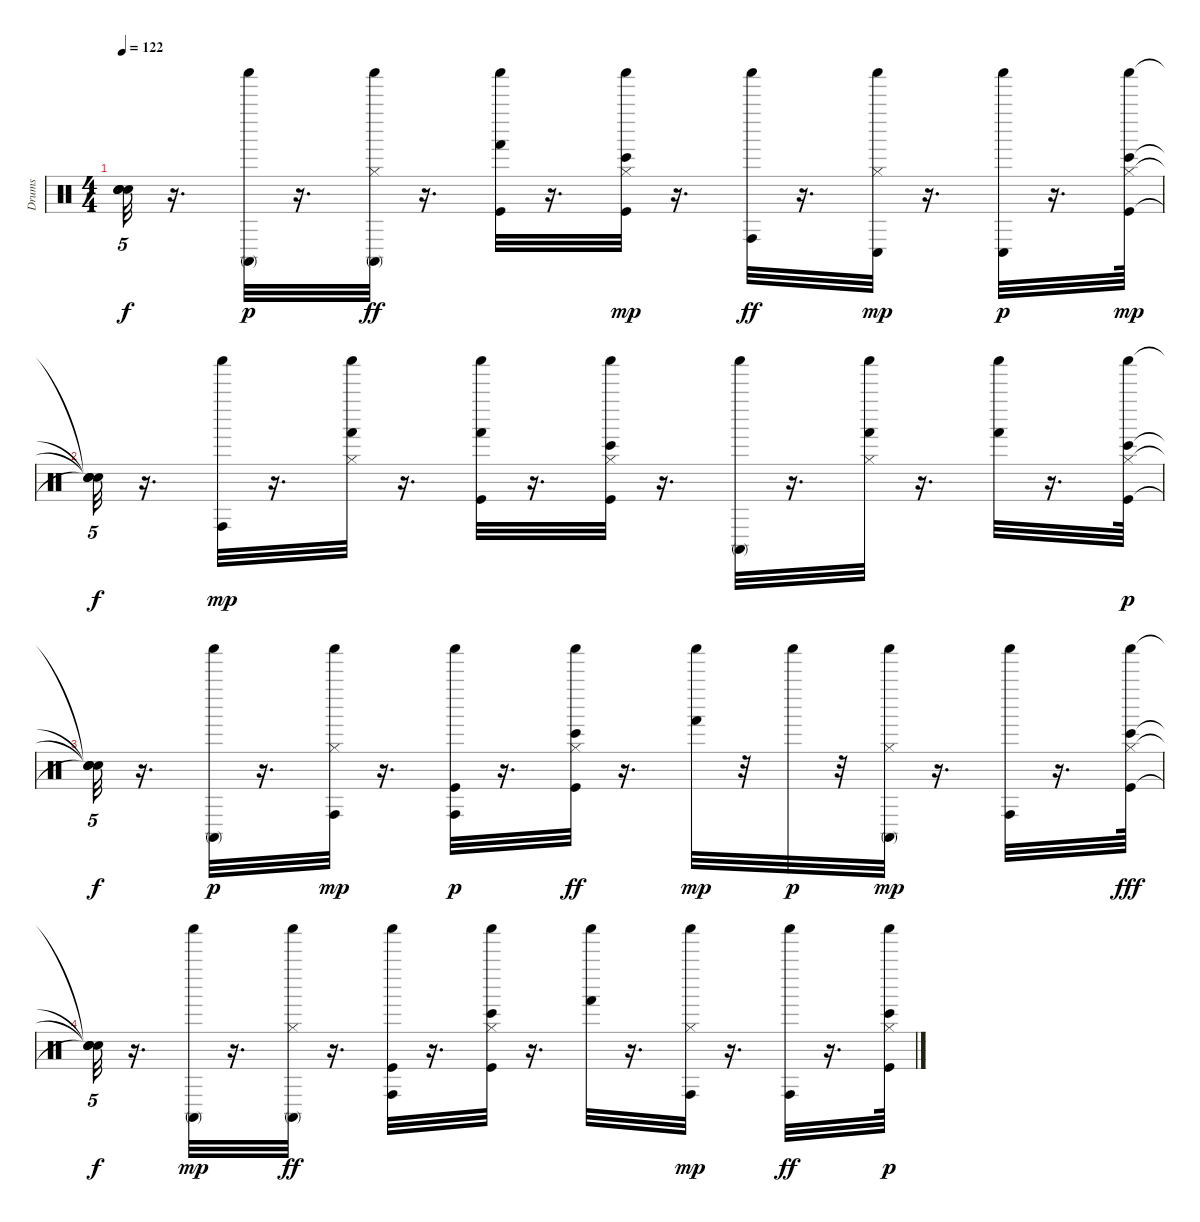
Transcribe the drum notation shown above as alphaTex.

\track ("Drums" "Drums") {instrument percussion}
\staff {score}
\articulation defaults
\ts (4 4)
\tempo 122
\clef neutral
\ks c
("Snare (hit)"{t} "Snare (hit)"{t} "Snare (hit)"{t} "Snare (hit)"{t}).32{tu (5 4) dy f} r.16{d} ("Conga high (mute)" "Shaker (hit)").32{dy p} r.16{d} ("Shaker (hit)" "Hi-Hat (closed)" "Conga high (mute)").32{dy ff} r.16{d} ("Shaker (hit)" "Kick (hit)" "Hand (hit)").32 r.16{d} ("Bongo High (hit)" "Shaker (hit)" "Kick (hit)" "Hi-Hat (closed)").32{dy mp} r.16{d} ("Shaker (hit)" "Conga high (hit)").32{dy ff} r.16{d} ("Conga low (hit)" "Shaker (hit)" "Hi-Hat (closed)").32{dy mp} r.16{d} ("Conga low (hit)" "Shaker (hit)").32{dy p} r.16{d} ("Bongo High (hit)" "Shaker (hit)" "Kick (hit)" "Hi-Hat (closed)").64{dy mp} |
("Snare (hit)"{t} "Snare (hit)"{t} "Snare (hit)"{t} "Snare (hit)"{t}).32{tu (5 4) dy f} r.16{d} ("Conga high (hit)" "Shaker (hit)").32{dy mp} r.16{d} ("Hi-Hat (closed)" "Hand (hit)" "Shaker (hit)").32 r.16{d} ("Hand (hit)" "Shaker (hit)" "Kick (hit)").32 r.16{d} ("Hi-Hat (closed)" "Bongo High (hit)" "Shaker (hit)" "Kick (hit)").32 r.16{d} ("Conga high (mute)" "Shaker (hit)").32 r.16{d} ("Hi-Hat (closed)" "Hand (hit)" "Shaker (hit)").32 r.16{d} ("Hand (hit)" "Shaker (hit)").32 r.16{d} ("Bongo High (hit)" "Kick (hit)" "Hi-Hat (closed)" "Shaker (hit)").64{dy p} |
("Snare (hit)"{t} "Snare (hit)"{t} "Snare (hit)"{t} "Snare (hit)"{t}).32{tu (5 4) dy f} r.16{d} ("Conga high (mute)" "Shaker (hit)").32{dy p} r.16{d} ("Hi-Hat (closed)" "Conga high (hit)" "Shaker (hit)").32{dy mp} r.16{d} ("Conga high (hit)" "Shaker (hit)" "Kick (hit)").32{dy p} r.16{d} ("Hi-Hat (closed)" "Bongo High (hit)" "Shaker (hit)" "Kick (hit)").32{dy ff} r.16{d} ("Hand (hit)" "Shaker (hit)").32{dy mp} r.32 "Shaker (hit)".32{dy p} r.32 ("Hi-Hat (closed)" "Conga high (mute)" "Shaker (hit)").32{dy mp} r.16{d} ("Conga high (hit)" "Shaker (hit)").32 r.16{d} ("Shaker (hit)" "Kick (hit)" "Hi-Hat (closed)" "Bongo High (hit)").64{dy fff} |
("Snare (hit)"{t} "Snare (hit)"{t} "Snare (hit)"{t} "Snare (hit)"{t}).32{tu (5 4) dy f} r.16{d} ("Conga high (mute)" "Shaker (hit)").32{dy mp} r.16{d} ("Hi-Hat (closed)" "Shaker (hit)" "Conga high (mute)").32{dy ff} r.16{d} ("Shaker (hit)" "Kick (hit)" "Conga high (hit)").32 r.16{d} ("Hi-Hat (closed)" "Shaker (hit)" "Kick (hit)" "Bongo High (hit)").32 r.16{d} ("Shaker (hit)" "Hand (hit)").32 r.16{d} ("Hi-Hat (closed)" "Shaker (hit)" "Conga high (hit)").32{dy mp} r.16{d} ("Shaker (hit)" "Conga high (hit)").32{dy ff} r.16{d} ("Kick (hit)" "Hi-Hat (closed)" "Bongo High (hit)" "Shaker (hit)").64{dy p}
